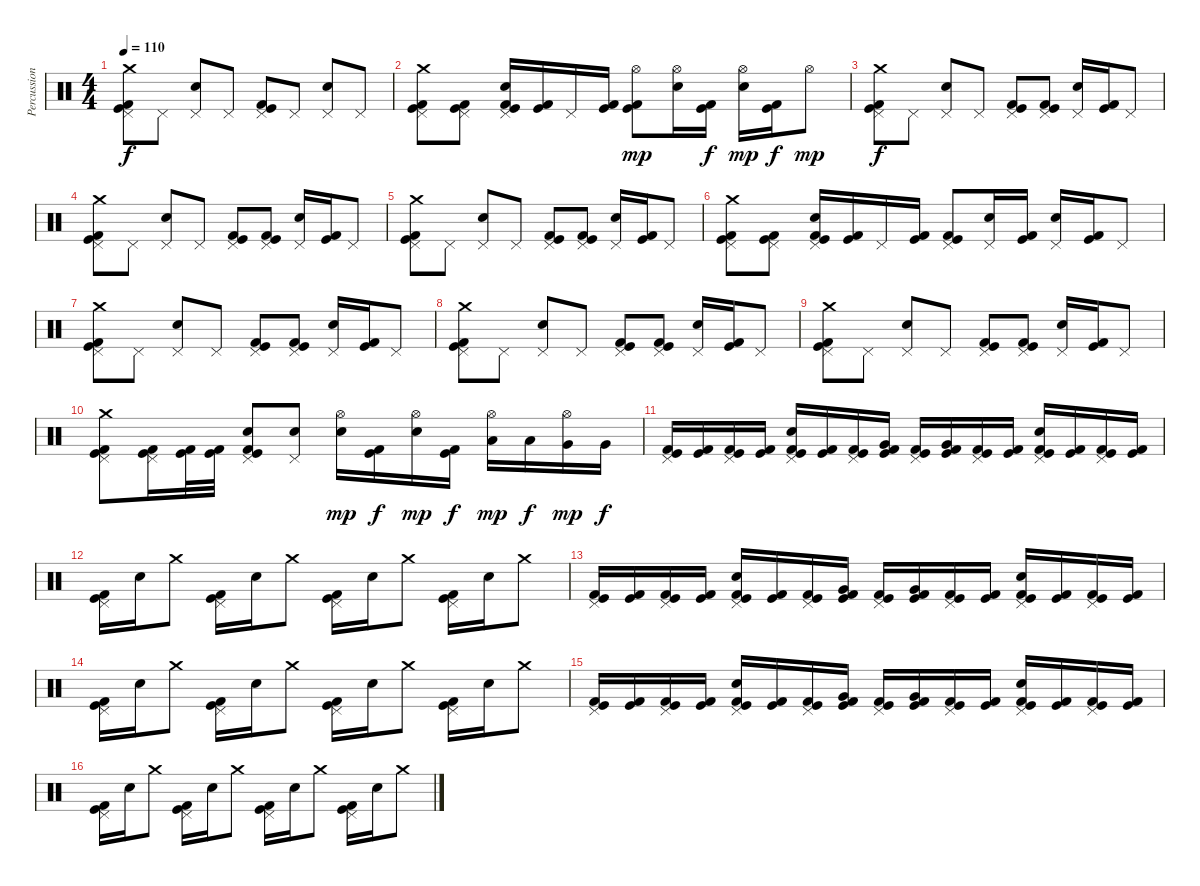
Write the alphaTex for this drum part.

\track ("Percussions" "Percussion") {instrument percussion}
\staff {score}
\articulation defaults
\ts (4 4)
\tempo 110
\clef neutral
\ks c
("Crash medium (hit)" "Pedal Hi-Hat (hit)" "Kick (hit)" "Kick (hit) 2").8{dy f} "Pedal Hi-Hat (hit)".8 ("Pedal Hi-Hat (hit)" "Electric Snare (hit)").8 "Pedal Hi-Hat (hit)".8 ("Pedal Hi-Hat (hit)" "Kick (hit)" "Kick (hit) 2").8 "Pedal Hi-Hat (hit)".8 ("Pedal Hi-Hat (hit)" "Electric Snare (hit)").8 "Pedal Hi-Hat (hit)".8 |
("Crash medium (hit)" "Pedal Hi-Hat (hit)" "Kick (hit)" "Kick (hit) 2").8 ("Pedal Hi-Hat (hit)" "Kick (hit)" "Kick (hit) 2").8 ("Pedal Hi-Hat (hit)" "Electric Snare (hit)" "Kick (hit)" "Kick (hit) 2").16 ("Kick (hit)" "Kick (hit) 2").16 "Pedal Hi-Hat (hit)".16 ("Kick (hit)" "Kick (hit) 2").16 ("Hi-Hat (open)" "Kick (hit)" "Kick (hit) 2").8{dy mp} ("Hi-Hat (open)" "Electric Snare (hit)").16 ("Kick (hit)" "Kick (hit) 2").16{dy f} ("Hi-Hat (open)" "Electric Snare (hit)").16{dy mp} ("Kick (hit)" "Kick (hit) 2").16{dy f} "Hi-Hat (open)".8{dy mp} |
("Crash medium (hit)" "Pedal Hi-Hat (hit)" "Kick (hit)" "Kick (hit) 2").8{dy f} "Pedal Hi-Hat (hit)".8 ("Pedal Hi-Hat (hit)" "Electric Snare (hit)").8 "Pedal Hi-Hat (hit)".8 ("Pedal Hi-Hat (hit)" "Kick (hit)" "Kick (hit) 2").8 ("Pedal Hi-Hat (hit)" "Kick (hit)" "Kick (hit) 2").8 ("Pedal Hi-Hat (hit)" "Electric Snare (hit)").16 ("Kick (hit)" "Kick (hit) 2").16 "Pedal Hi-Hat (hit)".8 |
("Crash medium (hit)" "Pedal Hi-Hat (hit)" "Kick (hit)" "Kick (hit) 2").8 "Pedal Hi-Hat (hit)".8 ("Pedal Hi-Hat (hit)" "Electric Snare (hit)").8 "Pedal Hi-Hat (hit)".8 ("Pedal Hi-Hat (hit)" "Kick (hit)" "Kick (hit) 2").8 ("Pedal Hi-Hat (hit)" "Kick (hit)" "Kick (hit) 2").8 ("Pedal Hi-Hat (hit)" "Electric Snare (hit)").16 ("Kick (hit)" "Kick (hit) 2").16 "Pedal Hi-Hat (hit)".8 |
("Crash medium (hit)" "Pedal Hi-Hat (hit)" "Kick (hit)" "Kick (hit) 2").8 "Pedal Hi-Hat (hit)".8 ("Pedal Hi-Hat (hit)" "Electric Snare (hit)").8 "Pedal Hi-Hat (hit)".8 ("Pedal Hi-Hat (hit)" "Kick (hit)" "Kick (hit) 2").8 ("Pedal Hi-Hat (hit)" "Kick (hit)" "Kick (hit) 2").8 ("Pedal Hi-Hat (hit)" "Electric Snare (hit)").16 ("Kick (hit)" "Kick (hit) 2").16 "Pedal Hi-Hat (hit)".8 |
("Crash medium (hit)" "Pedal Hi-Hat (hit)" "Kick (hit)" "Kick (hit) 2").8 ("Pedal Hi-Hat (hit)" "Kick (hit)" "Kick (hit) 2").8 ("Pedal Hi-Hat (hit)" "Electric Snare (hit)" "Kick (hit)" "Kick (hit) 2").16 ("Kick (hit)" "Kick (hit) 2").16 "Pedal Hi-Hat (hit)".16 ("Kick (hit)" "Kick (hit) 2").16 ("Pedal Hi-Hat (hit)" "Kick (hit)" "Kick (hit) 2").8 ("Pedal Hi-Hat (hit)" "Electric Snare (hit)").16 ("Kick (hit)" "Kick (hit) 2").16 ("Pedal Hi-Hat (hit)" "Electric Snare (hit)").16 ("Kick (hit)" "Kick (hit) 2").16 "Pedal Hi-Hat (hit)".8 |
("Crash medium (hit)" "Pedal Hi-Hat (hit)" "Kick (hit)" "Kick (hit) 2").8 "Pedal Hi-Hat (hit)".8 ("Pedal Hi-Hat (hit)" "Electric Snare (hit)").8 "Pedal Hi-Hat (hit)".8 ("Pedal Hi-Hat (hit)" "Kick (hit)" "Kick (hit) 2").8 ("Pedal Hi-Hat (hit)" "Kick (hit)" "Kick (hit) 2").8 ("Pedal Hi-Hat (hit)" "Electric Snare (hit)").16 ("Kick (hit)" "Kick (hit) 2").16 "Pedal Hi-Hat (hit)".8 |
("Crash medium (hit)" "Pedal Hi-Hat (hit)" "Kick (hit)" "Kick (hit) 2").8 "Pedal Hi-Hat (hit)".8 ("Pedal Hi-Hat (hit)" "Electric Snare (hit)").8 "Pedal Hi-Hat (hit)".8 ("Pedal Hi-Hat (hit)" "Kick (hit)" "Kick (hit) 2").8 ("Pedal Hi-Hat (hit)" "Kick (hit)" "Kick (hit) 2").8 ("Pedal Hi-Hat (hit)" "Electric Snare (hit)").16 ("Kick (hit)" "Kick (hit) 2").16 "Pedal Hi-Hat (hit)".8 |
("Crash medium (hit)" "Pedal Hi-Hat (hit)" "Kick (hit)" "Kick (hit) 2").8 "Pedal Hi-Hat (hit)".8 ("Pedal Hi-Hat (hit)" "Electric Snare (hit)").8 "Pedal Hi-Hat (hit)".8 ("Pedal Hi-Hat (hit)" "Kick (hit)" "Kick (hit) 2").8 ("Pedal Hi-Hat (hit)" "Kick (hit)" "Kick (hit) 2").8 ("Pedal Hi-Hat (hit)" "Electric Snare (hit)").16 ("Kick (hit)" "Kick (hit) 2").16 "Pedal Hi-Hat (hit)".8 |
("Crash medium (hit)" "Pedal Hi-Hat (hit)" "Kick (hit)" "Kick (hit) 2").8 ("Pedal Hi-Hat (hit)" "Kick (hit)" "Kick (hit) 2").16 ("Kick (hit)" "Kick (hit) 2").32 ("Kick (hit)" "Kick (hit) 2").32 ("Pedal Hi-Hat (hit)" "Electric Snare (hit)" "Kick (hit)" "Kick (hit) 2").8 ("Pedal Hi-Hat (hit)" "Electric Snare (hit)").8 ("Hi-Hat (open)" "Electric Snare (hit)").16{dy mp} ("Kick (hit)" "Kick (hit) 2").16{dy f} ("Hi-Hat (open)" "Electric Snare (hit)").16{dy mp} ("Kick (hit)" "Kick (hit) 2").16{dy f} ("Hi-Hat (open)" "Low Tom (hit)").16{dy mp} "Low Tom (hit)".16{dy f} ("Hi-Hat (open)" "Very Low Tom (hit)").16{dy mp} "Very Low Tom (hit)".16{dy f} |
("Pedal Hi-Hat (hit)" "Kick (hit)" "Kick (hit) 2").16 ("Kick (hit)" "Kick (hit) 2").16 ("Pedal Hi-Hat (hit)" "Kick (hit)" "Kick (hit) 2").16 ("Kick (hit)" "Kick (hit) 2").16 ("Pedal Hi-Hat (hit)" "Electric Snare (hit)" "Kick (hit)" "Kick (hit) 2").16 ("Kick (hit)" "Kick (hit) 2").16 ("Pedal Hi-Hat (hit)" "Kick (hit)" "Kick (hit) 2").16 ("Very Low Tom (hit)" "Kick (hit)" "Kick (hit) 2").16 ("Pedal Hi-Hat (hit)" "Kick (hit)" "Kick (hit) 2").16 ("Very Low Tom (hit)" "Kick (hit)" "Kick (hit) 2").16 ("Pedal Hi-Hat (hit)" "Kick (hit)" "Kick (hit) 2").16 ("Kick (hit)" "Kick (hit) 2").16 ("Pedal Hi-Hat (hit)" "Electric Snare (hit)" "Kick (hit)" "Kick (hit) 2").16 ("Kick (hit)" "Kick (hit) 2").16 ("Pedal Hi-Hat (hit)" "Kick (hit)" "Kick (hit) 2").16 ("Kick (hit)" "Kick (hit) 2").16 |
("Pedal Hi-Hat (hit)" "Kick (hit)" "Kick (hit) 2").16 "Electric Snare (hit)".16 "Crash medium (hit)".8 ("Pedal Hi-Hat (hit)" "Kick (hit)" "Kick (hit) 2").16 "Electric Snare (hit)".16 "Crash medium (hit)".8 ("Pedal Hi-Hat (hit)" "Kick (hit)" "Kick (hit) 2").16 "Electric Snare (hit)".16 "Crash medium (hit)".8 ("Pedal Hi-Hat (hit)" "Kick (hit)" "Kick (hit) 2").16 "Electric Snare (hit)".16 "Crash medium (hit)".8 |
("Pedal Hi-Hat (hit)" "Kick (hit)" "Kick (hit) 2").16 ("Kick (hit)" "Kick (hit) 2").16 ("Pedal Hi-Hat (hit)" "Kick (hit)" "Kick (hit) 2").16 ("Kick (hit)" "Kick (hit) 2").16 ("Pedal Hi-Hat (hit)" "Electric Snare (hit)" "Kick (hit)" "Kick (hit) 2").16 ("Kick (hit)" "Kick (hit) 2").16 ("Pedal Hi-Hat (hit)" "Kick (hit)" "Kick (hit) 2").16 ("Very Low Tom (hit)" "Kick (hit)" "Kick (hit) 2").16 ("Pedal Hi-Hat (hit)" "Kick (hit)" "Kick (hit) 2").16 ("Very Low Tom (hit)" "Kick (hit)" "Kick (hit) 2").16 ("Pedal Hi-Hat (hit)" "Kick (hit)" "Kick (hit) 2").16 ("Kick (hit)" "Kick (hit) 2").16 ("Pedal Hi-Hat (hit)" "Electric Snare (hit)" "Kick (hit)" "Kick (hit) 2").16 ("Kick (hit)" "Kick (hit) 2").16 ("Pedal Hi-Hat (hit)" "Kick (hit)" "Kick (hit) 2").16 ("Kick (hit)" "Kick (hit) 2").16 |
("Pedal Hi-Hat (hit)" "Kick (hit)" "Kick (hit) 2").16 "Electric Snare (hit)".16 "Crash medium (hit)".8 ("Pedal Hi-Hat (hit)" "Kick (hit)" "Kick (hit) 2").16 "Electric Snare (hit)".16 "Crash medium (hit)".8 ("Pedal Hi-Hat (hit)" "Kick (hit)" "Kick (hit) 2").16 "Electric Snare (hit)".16 "Crash medium (hit)".8 ("Pedal Hi-Hat (hit)" "Kick (hit)" "Kick (hit) 2").16 "Electric Snare (hit)".16 "Crash medium (hit)".8 |
("Pedal Hi-Hat (hit)" "Kick (hit)" "Kick (hit) 2").16 ("Kick (hit)" "Kick (hit) 2").16 ("Pedal Hi-Hat (hit)" "Kick (hit)" "Kick (hit) 2").16 ("Kick (hit)" "Kick (hit) 2").16 ("Pedal Hi-Hat (hit)" "Electric Snare (hit)" "Kick (hit)" "Kick (hit) 2").16 ("Kick (hit)" "Kick (hit) 2").16 ("Pedal Hi-Hat (hit)" "Kick (hit)" "Kick (hit) 2").16 ("Very Low Tom (hit)" "Kick (hit)" "Kick (hit) 2").16 ("Pedal Hi-Hat (hit)" "Kick (hit)" "Kick (hit) 2").16 ("Very Low Tom (hit)" "Kick (hit)" "Kick (hit) 2").16 ("Pedal Hi-Hat (hit)" "Kick (hit)" "Kick (hit) 2").16 ("Kick (hit)" "Kick (hit) 2").16 ("Pedal Hi-Hat (hit)" "Electric Snare (hit)" "Kick (hit)" "Kick (hit) 2").16 ("Kick (hit)" "Kick (hit) 2").16 ("Pedal Hi-Hat (hit)" "Kick (hit)" "Kick (hit) 2").16 ("Kick (hit)" "Kick (hit) 2").16 |
("Pedal Hi-Hat (hit)" "Kick (hit)" "Kick (hit) 2").16 "Electric Snare (hit)".16 "Crash medium (hit)".8 ("Pedal Hi-Hat (hit)" "Kick (hit)" "Kick (hit) 2").16 "Electric Snare (hit)".16 "Crash medium (hit)".8 ("Pedal Hi-Hat (hit)" "Kick (hit)" "Kick (hit) 2").16 "Electric Snare (hit)".16 "Crash medium (hit)".8 ("Pedal Hi-Hat (hit)" "Kick (hit)" "Kick (hit) 2").16 "Electric Snare (hit)".16 "Crash medium (hit)".8
